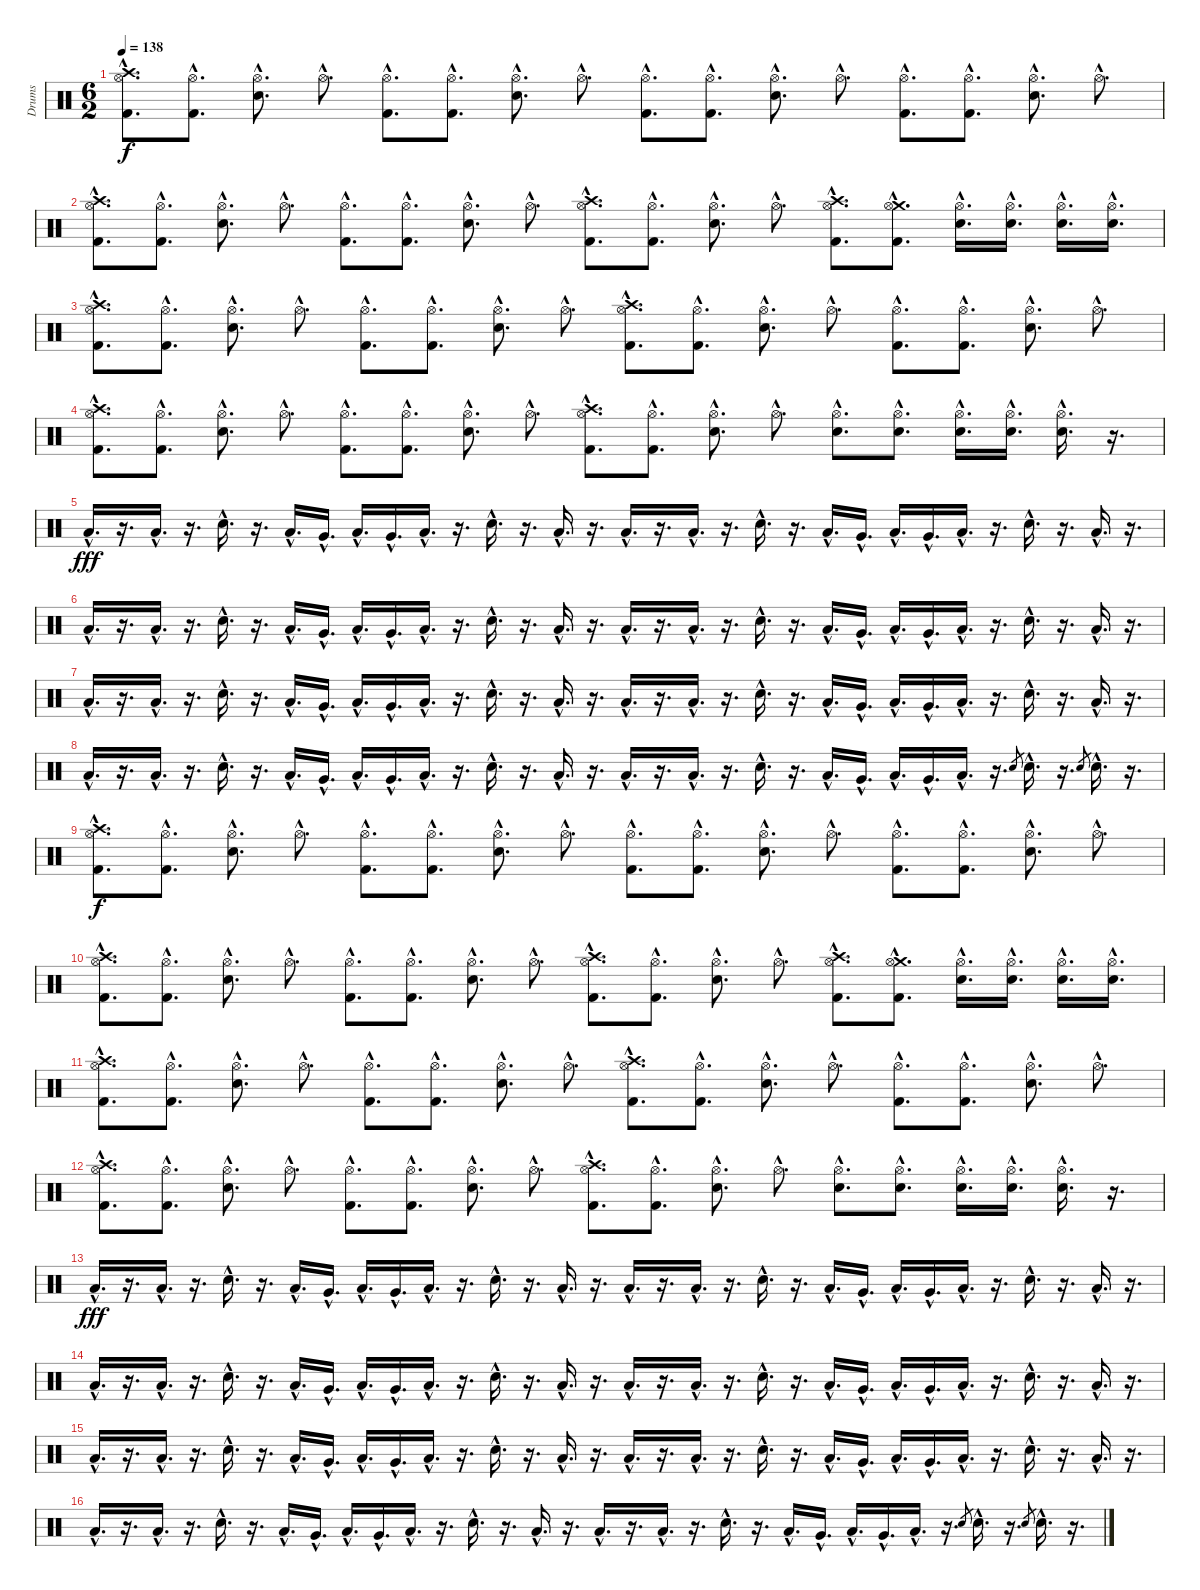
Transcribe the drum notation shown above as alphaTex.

\track ("Drums" "Drums") {instrument percussion}
\staff {score}
\articulation defaults
\ts (6 2)
\tempo 138
\clef neutral
\ks c
("Crash high (hit)"{hac} "Kick (hit) 2"{hac} "Hi-Hat (open)"{hac}).8{d dy f} ("Kick (hit) 2"{hac} "Hi-Hat (open)"{hac}).8{d} ("Electric Snare (hit)"{hac} "Hi-Hat (open)"{hac}).8{d} "Hi-Hat (open)"{hac}.8{d} ("Kick (hit) 2"{hac} "Hi-Hat (open)"{hac}).8{d} ("Kick (hit) 2"{hac} "Hi-Hat (open)"{hac}).8{d} ("Electric Snare (hit)"{hac} "Hi-Hat (open)"{hac}).8{d} "Hi-Hat (open)"{hac}.8{d} ("Kick (hit) 2"{hac} "Hi-Hat (open)"{hac}).8{d} ("Kick (hit) 2"{hac} "Hi-Hat (open)"{hac}).8{d} ("Electric Snare (hit)"{hac} "Hi-Hat (open)"{hac}).8{d} "Hi-Hat (open)"{hac}.8{d} ("Kick (hit) 2"{hac} "Hi-Hat (open)"{hac}).8{d} ("Kick (hit) 2"{hac} "Hi-Hat (open)"{hac}).8{d} ("Electric Snare (hit)"{hac} "Hi-Hat (open)"{hac}).8{d} "Hi-Hat (open)"{hac}.8{d} |
("Crash high (hit)"{hac} "Kick (hit) 2"{hac} "Hi-Hat (open)"{hac}).8{d} ("Kick (hit) 2"{hac} "Hi-Hat (open)"{hac}).8{d} ("Electric Snare (hit)"{hac} "Hi-Hat (open)"{hac}).8{d} "Hi-Hat (open)"{hac}.8{d} ("Kick (hit) 2"{hac} "Hi-Hat (open)"{hac}).8{d} ("Kick (hit) 2"{hac} "Hi-Hat (open)"{hac}).8{d} ("Electric Snare (hit)"{hac} "Hi-Hat (open)"{hac}).8{d} "Hi-Hat (open)"{hac}.8{d} ("Crash high (hit)"{hac} "Kick (hit) 2"{hac} "Hi-Hat (open)"{hac}).8{d} ("Kick (hit) 2"{hac} "Hi-Hat (open)"{hac}).8{d} ("Electric Snare (hit)"{hac} "Hi-Hat (open)"{hac}).8{d} "Hi-Hat (open)"{hac}.8{d} ("Crash high (hit)"{hac} "Kick (hit) 2"{hac} "Hi-Hat (open)"{hac}).8{d} ("Crash medium (hit)"{hac} "Kick (hit) 2"{hac} "Hi-Hat (open)"{hac}).8{d} ("Electric Snare (hit)"{hac} "Hi-Hat (open)"{hac}).16{d} ("Electric Snare (hit)"{hac} "Hi-Hat (open)"{hac}).16{d} ("Electric Snare (hit)"{hac} "Hi-Hat (open)"{hac}).16{d} ("Electric Snare (hit)"{hac} "Hi-Hat (open)"{hac}).16{d} |
("Crash high (hit)"{hac} "Kick (hit) 2"{hac} "Hi-Hat (open)"{hac}).8{d} ("Kick (hit) 2"{hac} "Hi-Hat (open)"{hac}).8{d} ("Electric Snare (hit)"{hac} "Hi-Hat (open)"{hac}).8{d} "Hi-Hat (open)"{hac}.8{d} ("Kick (hit) 2"{hac} "Hi-Hat (open)"{hac}).8{d} ("Kick (hit) 2"{hac} "Hi-Hat (open)"{hac}).8{d} ("Electric Snare (hit)"{hac} "Hi-Hat (open)"{hac}).8{d} "Hi-Hat (open)"{hac}.8{d} ("Crash high (hit)"{hac} "Kick (hit) 2"{hac} "Hi-Hat (open)"{hac}).8{d} ("Kick (hit) 2"{hac} "Hi-Hat (open)"{hac}).8{d} ("Electric Snare (hit)"{hac} "Hi-Hat (open)"{hac}).8{d} "Hi-Hat (open)"{hac}.8{d} ("Kick (hit) 2"{hac} "Hi-Hat (open)"{hac}).8{d} ("Kick (hit) 2"{hac} "Hi-Hat (open)"{hac}).8{d} ("Electric Snare (hit)"{hac} "Hi-Hat (open)"{hac}).8{d} "Hi-Hat (open)"{hac}.8{d} |
("Crash high (hit)"{hac} "Kick (hit) 2"{hac} "Hi-Hat (open)"{hac}).8{d} ("Kick (hit) 2"{hac} "Hi-Hat (open)"{hac}).8{d} ("Electric Snare (hit)"{hac} "Hi-Hat (open)"{hac}).8{d} "Hi-Hat (open)"{hac}.8{d} ("Kick (hit) 2"{hac} "Hi-Hat (open)"{hac}).8{d} ("Kick (hit) 2"{hac} "Hi-Hat (open)"{hac}).8{d} ("Electric Snare (hit)"{hac} "Hi-Hat (open)"{hac}).8{d} "Hi-Hat (open)"{hac}.8{d} ("Crash high (hit)"{hac} "Kick (hit) 2"{hac} "Hi-Hat (open)"{hac}).8{d} ("Kick (hit) 2"{hac} "Hi-Hat (open)"{hac}).8{d} ("Electric Snare (hit)"{hac} "Hi-Hat (open)"{hac}).8{d} "Hi-Hat (open)"{hac}.8{d} ("Electric Snare (hit)"{hac} "Hi-Hat (open)"{hac}).8{d} ("Electric Snare (hit)"{hac} "Hi-Hat (open)"{hac}).8{d} ("Electric Snare (hit)"{hac} "Hi-Hat (open)"{hac}).16{d} ("Electric Snare (hit)"{hac} "Hi-Hat (open)"{hac}).16{d} ("Electric Snare (hit)"{hac} "Hi-Hat (open)"{hac}).16{d} r.16{d} |
"Low Floor Tom (hit)"{hac}.16{d dy fff} r.16{d} "Low Floor Tom (hit)"{hac}.16{d} r.16{d} "Snare (hit) 2"{hac}.16{d} r.16{d} "Low Floor Tom (hit)"{hac}.16{d} "Very Low Tom (hit)"{hac}.16{d} "Low Floor Tom (hit)"{hac}.16{d} "Very Low Tom (hit)"{hac}.16{d} "Low Floor Tom (hit)"{hac}.16{d} r.16{d} "Snare (hit) 2"{hac}.16{d} r.16{d} "Low Floor Tom (hit)"{hac}.16{d} r.16{d} "Low Floor Tom (hit)"{hac}.16{d} r.16{d} "Low Floor Tom (hit)"{hac}.16{d} r.16{d} "Snare (hit) 2"{hac}.16{d} r.16{d} "Low Floor Tom (hit)"{hac}.16{d} "Very Low Tom (hit)"{hac}.16{d} "Low Floor Tom (hit)"{hac}.16{d} "Very Low Tom (hit)"{hac}.16{d} "Low Floor Tom (hit)"{hac}.16{d} r.16{d} "Snare (hit) 2"{hac}.16{d} r.16{d} "Low Floor Tom (hit)"{hac}.16{d} r.16{d} |
"Low Floor Tom (hit)"{hac}.16{d} r.16{d} "Low Floor Tom (hit)"{hac}.16{d} r.16{d} "Snare (hit) 2"{hac}.16{d} r.16{d} "Low Floor Tom (hit)"{hac}.16{d} "Very Low Tom (hit)"{hac}.16{d} "Low Floor Tom (hit)"{hac}.16{d} "Very Low Tom (hit)"{hac}.16{d} "Low Floor Tom (hit)"{hac}.16{d} r.16{d} "Snare (hit) 2"{hac}.16{d} r.16{d} "Low Floor Tom (hit)"{hac}.16{d} r.16{d} "Low Floor Tom (hit)"{hac}.16{d} r.16{d} "Low Floor Tom (hit)"{hac}.16{d} r.16{d} "Snare (hit) 2"{hac}.16{d} r.16{d} "Low Floor Tom (hit)"{hac}.16{d} "Very Low Tom (hit)"{hac}.16{d} "Low Floor Tom (hit)"{hac}.16{d} "Very Low Tom (hit)"{hac}.16{d} "Low Floor Tom (hit)"{hac}.16{d} r.16{d} "Snare (hit) 2"{hac}.16{d} r.16{d} "Low Floor Tom (hit)"{hac}.16{d} r.16{d} |
"Low Floor Tom (hit)"{hac}.16{d} r.16{d} "Low Floor Tom (hit)"{hac}.16{d} r.16{d} "Snare (hit) 2"{hac}.16{d} r.16{d} "Low Floor Tom (hit)"{hac}.16{d} "Very Low Tom (hit)"{hac}.16{d} "Low Floor Tom (hit)"{hac}.16{d} "Very Low Tom (hit)"{hac}.16{d} "Low Floor Tom (hit)"{hac}.16{d} r.16{d} "Snare (hit) 2"{hac}.16{d} r.16{d} "Low Floor Tom (hit)"{hac}.16{d} r.16{d} "Low Floor Tom (hit)"{hac}.16{d} r.16{d} "Low Floor Tom (hit)"{hac}.16{d} r.16{d} "Snare (hit) 2"{hac}.16{d} r.16{d} "Low Floor Tom (hit)"{hac}.16{d} "Very Low Tom (hit)"{hac}.16{d} "Low Floor Tom (hit)"{hac}.16{d} "Very Low Tom (hit)"{hac}.16{d} "Low Floor Tom (hit)"{hac}.16{d} r.16{d} "Snare (hit) 2"{hac}.16{d} r.16{d} "Low Floor Tom (hit)"{hac}.16{d} r.16{d} |
"Low Floor Tom (hit)"{hac}.16{d} r.16{d} "Low Floor Tom (hit)"{hac}.16{d} r.16{d} "Snare (hit) 2"{hac}.16{d} r.16{d} "Low Floor Tom (hit)"{hac}.16{d} "Very Low Tom (hit)"{hac}.16{d} "Low Floor Tom (hit)"{hac}.16{d} "Very Low Tom (hit)"{hac}.16{d} "Low Floor Tom (hit)"{hac}.16{d} r.16{d} "Snare (hit) 2"{hac}.16{d} r.16{d} "Low Floor Tom (hit)"{hac}.16{d} r.16{d} "Low Floor Tom (hit)"{hac}.16{d} r.16{d} "Low Floor Tom (hit)"{hac}.16{d} r.16{d} "Snare (hit) 2"{hac}.16{d} r.16{d} "Low Floor Tom (hit)"{hac}.16{d} "Very Low Tom (hit)"{hac}.16{d} "Low Floor Tom (hit)"{hac}.16{d} "Very Low Tom (hit)"{hac}.16{d} "Low Floor Tom (hit)"{hac}.16{d} r.16{d} "Electric Snare (hit)".8{gr} "Snare (hit) 2"{hac}.16{d} r.16{d} "Electric Snare (hit)".8{gr} "Snare (hit) 2"{hac}.16{d} r.16{d} |
("Crash high (hit)"{hac} "Kick (hit) 2"{hac} "Hi-Hat (open)"{hac}).8{d dy f} ("Kick (hit) 2"{hac} "Hi-Hat (open)"{hac}).8{d} ("Electric Snare (hit)"{hac} "Hi-Hat (open)"{hac}).8{d} "Hi-Hat (open)"{hac}.8{d} ("Kick (hit) 2"{hac} "Hi-Hat (open)"{hac}).8{d} ("Kick (hit) 2"{hac} "Hi-Hat (open)"{hac}).8{d} ("Electric Snare (hit)"{hac} "Hi-Hat (open)"{hac}).8{d} "Hi-Hat (open)"{hac}.8{d} ("Kick (hit) 2"{hac} "Hi-Hat (open)"{hac}).8{d} ("Kick (hit) 2"{hac} "Hi-Hat (open)"{hac}).8{d} ("Electric Snare (hit)"{hac} "Hi-Hat (open)"{hac}).8{d} "Hi-Hat (open)"{hac}.8{d} ("Kick (hit) 2"{hac} "Hi-Hat (open)"{hac}).8{d} ("Kick (hit) 2"{hac} "Hi-Hat (open)"{hac}).8{d} ("Electric Snare (hit)"{hac} "Hi-Hat (open)"{hac}).8{d} "Hi-Hat (open)"{hac}.8{d} |
("Crash high (hit)"{hac} "Kick (hit) 2"{hac} "Hi-Hat (open)"{hac}).8{d} ("Kick (hit) 2"{hac} "Hi-Hat (open)"{hac}).8{d} ("Electric Snare (hit)"{hac} "Hi-Hat (open)"{hac}).8{d} "Hi-Hat (open)"{hac}.8{d} ("Kick (hit) 2"{hac} "Hi-Hat (open)"{hac}).8{d} ("Kick (hit) 2"{hac} "Hi-Hat (open)"{hac}).8{d} ("Electric Snare (hit)"{hac} "Hi-Hat (open)"{hac}).8{d} "Hi-Hat (open)"{hac}.8{d} ("Crash high (hit)"{hac} "Kick (hit) 2"{hac} "Hi-Hat (open)"{hac}).8{d} ("Kick (hit) 2"{hac} "Hi-Hat (open)"{hac}).8{d} ("Electric Snare (hit)"{hac} "Hi-Hat (open)"{hac}).8{d} "Hi-Hat (open)"{hac}.8{d} ("Crash high (hit)"{hac} "Kick (hit) 2"{hac} "Hi-Hat (open)"{hac}).8{d} ("Crash medium (hit)"{hac} "Kick (hit) 2"{hac} "Hi-Hat (open)"{hac}).8{d} ("Electric Snare (hit)"{hac} "Hi-Hat (open)"{hac}).16{d} ("Electric Snare (hit)"{hac} "Hi-Hat (open)"{hac}).16{d} ("Electric Snare (hit)"{hac} "Hi-Hat (open)"{hac}).16{d} ("Electric Snare (hit)"{hac} "Hi-Hat (open)"{hac}).16{d} |
("Crash high (hit)"{hac} "Kick (hit) 2"{hac} "Hi-Hat (open)"{hac}).8{d} ("Kick (hit) 2"{hac} "Hi-Hat (open)"{hac}).8{d} ("Electric Snare (hit)"{hac} "Hi-Hat (open)"{hac}).8{d} "Hi-Hat (open)"{hac}.8{d} ("Kick (hit) 2"{hac} "Hi-Hat (open)"{hac}).8{d} ("Kick (hit) 2"{hac} "Hi-Hat (open)"{hac}).8{d} ("Electric Snare (hit)"{hac} "Hi-Hat (open)"{hac}).8{d} "Hi-Hat (open)"{hac}.8{d} ("Crash high (hit)"{hac} "Kick (hit) 2"{hac} "Hi-Hat (open)"{hac}).8{d} ("Kick (hit) 2"{hac} "Hi-Hat (open)"{hac}).8{d} ("Electric Snare (hit)"{hac} "Hi-Hat (open)"{hac}).8{d} "Hi-Hat (open)"{hac}.8{d} ("Kick (hit) 2"{hac} "Hi-Hat (open)"{hac}).8{d} ("Kick (hit) 2"{hac} "Hi-Hat (open)"{hac}).8{d} ("Electric Snare (hit)"{hac} "Hi-Hat (open)"{hac}).8{d} "Hi-Hat (open)"{hac}.8{d} |
("Crash high (hit)"{hac} "Kick (hit) 2"{hac} "Hi-Hat (open)"{hac}).8{d} ("Kick (hit) 2"{hac} "Hi-Hat (open)"{hac}).8{d} ("Electric Snare (hit)"{hac} "Hi-Hat (open)"{hac}).8{d} "Hi-Hat (open)"{hac}.8{d} ("Kick (hit) 2"{hac} "Hi-Hat (open)"{hac}).8{d} ("Kick (hit) 2"{hac} "Hi-Hat (open)"{hac}).8{d} ("Electric Snare (hit)"{hac} "Hi-Hat (open)"{hac}).8{d} "Hi-Hat (open)"{hac}.8{d} ("Crash high (hit)"{hac} "Kick (hit) 2"{hac} "Hi-Hat (open)"{hac}).8{d} ("Kick (hit) 2"{hac} "Hi-Hat (open)"{hac}).8{d} ("Electric Snare (hit)"{hac} "Hi-Hat (open)"{hac}).8{d} "Hi-Hat (open)"{hac}.8{d} ("Electric Snare (hit)"{hac} "Hi-Hat (open)"{hac}).8{d} ("Electric Snare (hit)"{hac} "Hi-Hat (open)"{hac}).8{d} ("Electric Snare (hit)"{hac} "Hi-Hat (open)"{hac}).16{d} ("Electric Snare (hit)"{hac} "Hi-Hat (open)"{hac}).16{d} ("Electric Snare (hit)"{hac} "Hi-Hat (open)"{hac}).16{d} r.16{d} |
"Low Floor Tom (hit)"{hac}.16{d dy fff} r.16{d} "Low Floor Tom (hit)"{hac}.16{d} r.16{d} "Snare (hit) 2"{hac}.16{d} r.16{d} "Low Floor Tom (hit)"{hac}.16{d} "Very Low Tom (hit)"{hac}.16{d} "Low Floor Tom (hit)"{hac}.16{d} "Very Low Tom (hit)"{hac}.16{d} "Low Floor Tom (hit)"{hac}.16{d} r.16{d} "Snare (hit) 2"{hac}.16{d} r.16{d} "Low Floor Tom (hit)"{hac}.16{d} r.16{d} "Low Floor Tom (hit)"{hac}.16{d} r.16{d} "Low Floor Tom (hit)"{hac}.16{d} r.16{d} "Snare (hit) 2"{hac}.16{d} r.16{d} "Low Floor Tom (hit)"{hac}.16{d} "Very Low Tom (hit)"{hac}.16{d} "Low Floor Tom (hit)"{hac}.16{d} "Very Low Tom (hit)"{hac}.16{d} "Low Floor Tom (hit)"{hac}.16{d} r.16{d} "Snare (hit) 2"{hac}.16{d} r.16{d} "Low Floor Tom (hit)"{hac}.16{d} r.16{d} |
"Low Floor Tom (hit)"{hac}.16{d} r.16{d} "Low Floor Tom (hit)"{hac}.16{d} r.16{d} "Snare (hit) 2"{hac}.16{d} r.16{d} "Low Floor Tom (hit)"{hac}.16{d} "Very Low Tom (hit)"{hac}.16{d} "Low Floor Tom (hit)"{hac}.16{d} "Very Low Tom (hit)"{hac}.16{d} "Low Floor Tom (hit)"{hac}.16{d} r.16{d} "Snare (hit) 2"{hac}.16{d} r.16{d} "Low Floor Tom (hit)"{hac}.16{d} r.16{d} "Low Floor Tom (hit)"{hac}.16{d} r.16{d} "Low Floor Tom (hit)"{hac}.16{d} r.16{d} "Snare (hit) 2"{hac}.16{d} r.16{d} "Low Floor Tom (hit)"{hac}.16{d} "Very Low Tom (hit)"{hac}.16{d} "Low Floor Tom (hit)"{hac}.16{d} "Very Low Tom (hit)"{hac}.16{d} "Low Floor Tom (hit)"{hac}.16{d} r.16{d} "Snare (hit) 2"{hac}.16{d} r.16{d} "Low Floor Tom (hit)"{hac}.16{d} r.16{d} |
"Low Floor Tom (hit)"{hac}.16{d} r.16{d} "Low Floor Tom (hit)"{hac}.16{d} r.16{d} "Snare (hit) 2"{hac}.16{d} r.16{d} "Low Floor Tom (hit)"{hac}.16{d} "Very Low Tom (hit)"{hac}.16{d} "Low Floor Tom (hit)"{hac}.16{d} "Very Low Tom (hit)"{hac}.16{d} "Low Floor Tom (hit)"{hac}.16{d} r.16{d} "Snare (hit) 2"{hac}.16{d} r.16{d} "Low Floor Tom (hit)"{hac}.16{d} r.16{d} "Low Floor Tom (hit)"{hac}.16{d} r.16{d} "Low Floor Tom (hit)"{hac}.16{d} r.16{d} "Snare (hit) 2"{hac}.16{d} r.16{d} "Low Floor Tom (hit)"{hac}.16{d} "Very Low Tom (hit)"{hac}.16{d} "Low Floor Tom (hit)"{hac}.16{d} "Very Low Tom (hit)"{hac}.16{d} "Low Floor Tom (hit)"{hac}.16{d} r.16{d} "Snare (hit) 2"{hac}.16{d} r.16{d} "Low Floor Tom (hit)"{hac}.16{d} r.16{d} |
"Low Floor Tom (hit)"{hac}.16{d} r.16{d} "Low Floor Tom (hit)"{hac}.16{d} r.16{d} "Snare (hit) 2"{hac}.16{d} r.16{d} "Low Floor Tom (hit)"{hac}.16{d} "Very Low Tom (hit)"{hac}.16{d} "Low Floor Tom (hit)"{hac}.16{d} "Very Low Tom (hit)"{hac}.16{d} "Low Floor Tom (hit)"{hac}.16{d} r.16{d} "Snare (hit) 2"{hac}.16{d} r.16{d} "Low Floor Tom (hit)"{hac}.16{d} r.16{d} "Low Floor Tom (hit)"{hac}.16{d} r.16{d} "Low Floor Tom (hit)"{hac}.16{d} r.16{d} "Snare (hit) 2"{hac}.16{d} r.16{d} "Low Floor Tom (hit)"{hac}.16{d} "Very Low Tom (hit)"{hac}.16{d} "Low Floor Tom (hit)"{hac}.16{d} "Very Low Tom (hit)"{hac}.16{d} "Low Floor Tom (hit)"{hac}.16{d} r.16{d} "Electric Snare (hit)".8{gr} "Snare (hit) 2"{hac}.16{d} r.16{d} "Electric Snare (hit)".8{gr} "Snare (hit) 2"{hac}.16{d} r.16{d}
